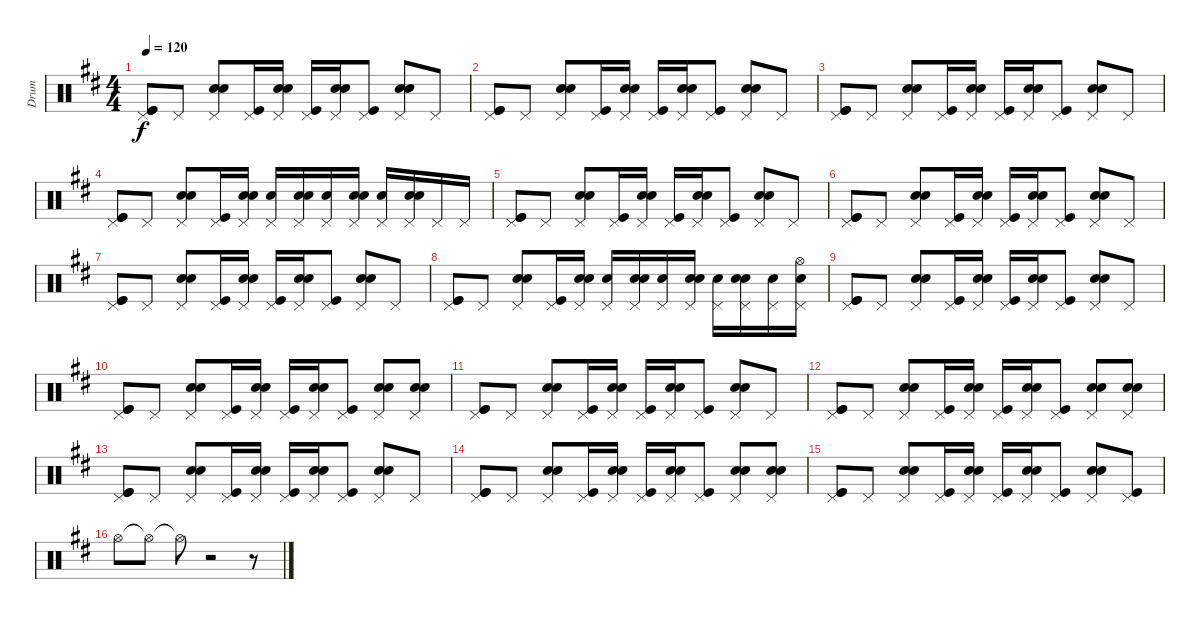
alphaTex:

\track ("Drum" "Drum") {instrument percussion}
\staff {score}
\articulation defaults
\ts (4 4)
\tempo 120
\clef neutral
\ks d
("Pedal Hi-Hat (hit)" "Kick (hit)" "Kick (hit)").8{dy f} "Pedal Hi-Hat (hit)".8 ("Pedal Hi-Hat (hit)" "Electric Snare (hit)" "Electric Snare (hit)").8 ("Pedal Hi-Hat (hit)" "Kick (hit)").16 ("Pedal Hi-Hat (hit)" "Electric Snare (hit)" "Electric Snare (hit)").16 ("Pedal Hi-Hat (hit)" "Kick (hit)").16 ("Pedal Hi-Hat (hit)" "Electric Snare (hit)" "Electric Snare (hit)").16 ("Pedal Hi-Hat (hit)" "Kick (hit)").8 ("Pedal Hi-Hat (hit)" "Electric Snare (hit)" "Electric Snare (hit)").8 "Pedal Hi-Hat (hit)".8 |
("Pedal Hi-Hat (hit)" "Kick (hit)" "Kick (hit)").8 "Pedal Hi-Hat (hit)".8 ("Pedal Hi-Hat (hit)" "Electric Snare (hit)" "Electric Snare (hit)").8 ("Pedal Hi-Hat (hit)" "Kick (hit)").16 ("Pedal Hi-Hat (hit)" "Electric Snare (hit)" "Electric Snare (hit)").16 ("Pedal Hi-Hat (hit)" "Kick (hit)").16 ("Pedal Hi-Hat (hit)" "Electric Snare (hit)" "Electric Snare (hit)").16 ("Pedal Hi-Hat (hit)" "Kick (hit)").8 ("Pedal Hi-Hat (hit)" "Electric Snare (hit)" "Electric Snare (hit)").8 "Pedal Hi-Hat (hit)".8 |
("Pedal Hi-Hat (hit)" "Kick (hit)" "Kick (hit)").8 "Pedal Hi-Hat (hit)".8 ("Pedal Hi-Hat (hit)" "Electric Snare (hit)" "Electric Snare (hit)").8 ("Pedal Hi-Hat (hit)" "Kick (hit)").16 ("Pedal Hi-Hat (hit)" "Electric Snare (hit)" "Electric Snare (hit)").16 ("Pedal Hi-Hat (hit)" "Kick (hit)").16 ("Pedal Hi-Hat (hit)" "Electric Snare (hit)" "Electric Snare (hit)").16 ("Pedal Hi-Hat (hit)" "Kick (hit)").8 ("Pedal Hi-Hat (hit)" "Electric Snare (hit)" "Electric Snare (hit)").8 "Pedal Hi-Hat (hit)".8 |
("Pedal Hi-Hat (hit)" "Kick (hit)" "Kick (hit)").8 "Pedal Hi-Hat (hit)".8 ("Pedal Hi-Hat (hit)" "Electric Snare (hit)" "Electric Snare (hit)").8 ("Pedal Hi-Hat (hit)" "Kick (hit)").16 ("Pedal Hi-Hat (hit)" "Electric Snare (hit)" "Electric Snare (hit)").16 ("Pedal Hi-Hat (hit)" "Electric Snare (hit)").16 ("Pedal Hi-Hat (hit)" "Electric Snare (hit)" "Electric Snare (hit)").16 ("Pedal Hi-Hat (hit)" "Electric Snare (hit)").16 ("Pedal Hi-Hat (hit)" "Electric Snare (hit)" "Electric Snare (hit)").16 ("Pedal Hi-Hat (hit)" "Electric Snare (hit)").16 ("Pedal Hi-Hat (hit)" "Electric Snare (hit)" "Electric Snare (hit)").16 "Pedal Hi-Hat (hit)".16 "Pedal Hi-Hat (hit)".16 |
("Pedal Hi-Hat (hit)" "Kick (hit)" "Kick (hit)").8 "Pedal Hi-Hat (hit)".8 ("Pedal Hi-Hat (hit)" "Electric Snare (hit)" "Electric Snare (hit)").8 ("Pedal Hi-Hat (hit)" "Kick (hit)").16 ("Pedal Hi-Hat (hit)" "Electric Snare (hit)" "Electric Snare (hit)").16 ("Pedal Hi-Hat (hit)" "Kick (hit)").16 ("Pedal Hi-Hat (hit)" "Electric Snare (hit)" "Electric Snare (hit)").16 ("Pedal Hi-Hat (hit)" "Kick (hit)").8 ("Pedal Hi-Hat (hit)" "Electric Snare (hit)" "Electric Snare (hit)").8 "Pedal Hi-Hat (hit)".8 |
("Pedal Hi-Hat (hit)" "Kick (hit)" "Kick (hit)").8 "Pedal Hi-Hat (hit)".8 ("Pedal Hi-Hat (hit)" "Electric Snare (hit)" "Electric Snare (hit)").8 ("Pedal Hi-Hat (hit)" "Kick (hit)").16 ("Pedal Hi-Hat (hit)" "Electric Snare (hit)" "Electric Snare (hit)").16 ("Pedal Hi-Hat (hit)" "Kick (hit)").16 ("Pedal Hi-Hat (hit)" "Electric Snare (hit)" "Electric Snare (hit)").16 ("Pedal Hi-Hat (hit)" "Kick (hit)").8 ("Pedal Hi-Hat (hit)" "Electric Snare (hit)" "Electric Snare (hit)").8 "Pedal Hi-Hat (hit)".8 |
("Pedal Hi-Hat (hit)" "Kick (hit)" "Kick (hit)").8 "Pedal Hi-Hat (hit)".8 ("Pedal Hi-Hat (hit)" "Electric Snare (hit)" "Electric Snare (hit)").8 ("Pedal Hi-Hat (hit)" "Kick (hit)").16 ("Pedal Hi-Hat (hit)" "Electric Snare (hit)" "Electric Snare (hit)").16 ("Pedal Hi-Hat (hit)" "Kick (hit)").16 ("Pedal Hi-Hat (hit)" "Electric Snare (hit)" "Electric Snare (hit)").16 ("Pedal Hi-Hat (hit)" "Kick (hit)").8 ("Pedal Hi-Hat (hit)" "Electric Snare (hit)" "Electric Snare (hit)").8 "Pedal Hi-Hat (hit)".8 |
("Pedal Hi-Hat (hit)" "Kick (hit)" "Kick (hit)").8 "Pedal Hi-Hat (hit)".8 ("Pedal Hi-Hat (hit)" "Electric Snare (hit)" "Electric Snare (hit)").8 ("Pedal Hi-Hat (hit)" "Kick (hit)").16 ("Pedal Hi-Hat (hit)" "Electric Snare (hit)" "Electric Snare (hit)").16 ("Pedal Hi-Hat (hit)" "Electric Snare (hit)").16 ("Pedal Hi-Hat (hit)" "Electric Snare (hit)" "Electric Snare (hit)").16 ("Pedal Hi-Hat (hit)" "Electric Snare (hit)").16 ("Pedal Hi-Hat (hit)" "Electric Snare (hit)" "Electric Snare (hit)").16 ("Pedal Hi-Hat (hit)" "Electric Snare (hit)").16 ("Pedal Hi-Hat (hit)" "Electric Snare (hit)" "Electric Snare (hit)").16 ("Pedal Hi-Hat (hit)" "Electric Snare (hit)").16 ("Pedal Hi-Hat (hit)" "Hi-Hat (open)" "Electric Snare (hit)").16 |
("Pedal Hi-Hat (hit)" "Kick (hit)" "Kick (hit)").8 "Pedal Hi-Hat (hit)".8 ("Pedal Hi-Hat (hit)" "Electric Snare (hit)" "Electric Snare (hit)").8 ("Pedal Hi-Hat (hit)" "Kick (hit)").16 ("Pedal Hi-Hat (hit)" "Electric Snare (hit)" "Electric Snare (hit)").16 ("Pedal Hi-Hat (hit)" "Kick (hit)").16 ("Pedal Hi-Hat (hit)" "Electric Snare (hit)" "Electric Snare (hit)").16 ("Pedal Hi-Hat (hit)" "Kick (hit)").8 ("Pedal Hi-Hat (hit)" "Electric Snare (hit)" "Electric Snare (hit)").8 "Pedal Hi-Hat (hit)".8 |
("Pedal Hi-Hat (hit)" "Kick (hit)" "Kick (hit)").8 "Pedal Hi-Hat (hit)".8 ("Pedal Hi-Hat (hit)" "Electric Snare (hit)" "Electric Snare (hit)").8 ("Pedal Hi-Hat (hit)" "Kick (hit)").16 ("Pedal Hi-Hat (hit)" "Electric Snare (hit)" "Electric Snare (hit)").16 ("Pedal Hi-Hat (hit)" "Kick (hit)").16 ("Pedal Hi-Hat (hit)" "Electric Snare (hit)" "Electric Snare (hit)").16 ("Pedal Hi-Hat (hit)" "Kick (hit)").8 ("Pedal Hi-Hat (hit)" "Electric Snare (hit)" "Electric Snare (hit)").8 ("Pedal Hi-Hat (hit)" "Electric Snare (hit)" "Electric Snare (hit)").8 |
("Pedal Hi-Hat (hit)" "Kick (hit)" "Kick (hit)").8 "Pedal Hi-Hat (hit)".8 ("Pedal Hi-Hat (hit)" "Electric Snare (hit)" "Electric Snare (hit)").8 ("Pedal Hi-Hat (hit)" "Kick (hit)").16 ("Pedal Hi-Hat (hit)" "Electric Snare (hit)" "Electric Snare (hit)").16 ("Pedal Hi-Hat (hit)" "Kick (hit)").16 ("Pedal Hi-Hat (hit)" "Electric Snare (hit)" "Electric Snare (hit)").16 ("Pedal Hi-Hat (hit)" "Kick (hit)").8 ("Pedal Hi-Hat (hit)" "Electric Snare (hit)" "Electric Snare (hit)").8 "Pedal Hi-Hat (hit)".8 |
("Pedal Hi-Hat (hit)" "Kick (hit)" "Kick (hit)").8 "Pedal Hi-Hat (hit)".8 ("Pedal Hi-Hat (hit)" "Electric Snare (hit)" "Electric Snare (hit)").8 ("Pedal Hi-Hat (hit)" "Kick (hit)").16 ("Pedal Hi-Hat (hit)" "Electric Snare (hit)" "Electric Snare (hit)").16 ("Pedal Hi-Hat (hit)" "Kick (hit)").16 ("Pedal Hi-Hat (hit)" "Electric Snare (hit)" "Electric Snare (hit)").16 ("Pedal Hi-Hat (hit)" "Kick (hit)").8 ("Pedal Hi-Hat (hit)" "Electric Snare (hit)" "Electric Snare (hit)").8 ("Pedal Hi-Hat (hit)" "Electric Snare (hit)" "Electric Snare (hit)").8 |
("Pedal Hi-Hat (hit)" "Kick (hit)" "Kick (hit)").8 "Pedal Hi-Hat (hit)".8 ("Pedal Hi-Hat (hit)" "Electric Snare (hit)" "Electric Snare (hit)").8 ("Pedal Hi-Hat (hit)" "Kick (hit)").16 ("Pedal Hi-Hat (hit)" "Electric Snare (hit)" "Electric Snare (hit)").16 ("Pedal Hi-Hat (hit)" "Kick (hit)").16 ("Pedal Hi-Hat (hit)" "Electric Snare (hit)" "Electric Snare (hit)").16 ("Pedal Hi-Hat (hit)" "Kick (hit)").8 ("Pedal Hi-Hat (hit)" "Electric Snare (hit)" "Electric Snare (hit)").8 "Pedal Hi-Hat (hit)".8 |
("Pedal Hi-Hat (hit)" "Kick (hit)" "Kick (hit)").8 "Pedal Hi-Hat (hit)".8 ("Pedal Hi-Hat (hit)" "Electric Snare (hit)" "Electric Snare (hit)").8 ("Pedal Hi-Hat (hit)" "Kick (hit)").16 ("Pedal Hi-Hat (hit)" "Electric Snare (hit)" "Electric Snare (hit)").16 ("Pedal Hi-Hat (hit)" "Kick (hit)").16 ("Pedal Hi-Hat (hit)" "Electric Snare (hit)" "Electric Snare (hit)").16 ("Pedal Hi-Hat (hit)" "Kick (hit)").8 ("Pedal Hi-Hat (hit)" "Electric Snare (hit)" "Electric Snare (hit)").8 ("Pedal Hi-Hat (hit)" "Electric Snare (hit)" "Electric Snare (hit)").8 |
("Pedal Hi-Hat (hit)" "Kick (hit)" "Kick (hit)").8 "Pedal Hi-Hat (hit)".8 ("Pedal Hi-Hat (hit)" "Electric Snare (hit)" "Electric Snare (hit)").8 ("Pedal Hi-Hat (hit)" "Kick (hit)").16 ("Pedal Hi-Hat (hit)" "Electric Snare (hit)" "Electric Snare (hit)").16 ("Pedal Hi-Hat (hit)" "Kick (hit)").16 ("Pedal Hi-Hat (hit)" "Electric Snare (hit)" "Electric Snare (hit)").16 ("Pedal Hi-Hat (hit)" "Kick (hit)").8 ("Pedal Hi-Hat (hit)" "Electric Snare (hit)" "Electric Snare (hit)").8 ("Pedal Hi-Hat (hit)" "Kick (hit)").8 |
"Hi-Hat (open)".8 "Hi-Hat (open)"{t}.8 "Hi-Hat (open)"{t}.8 r.2 r.8
